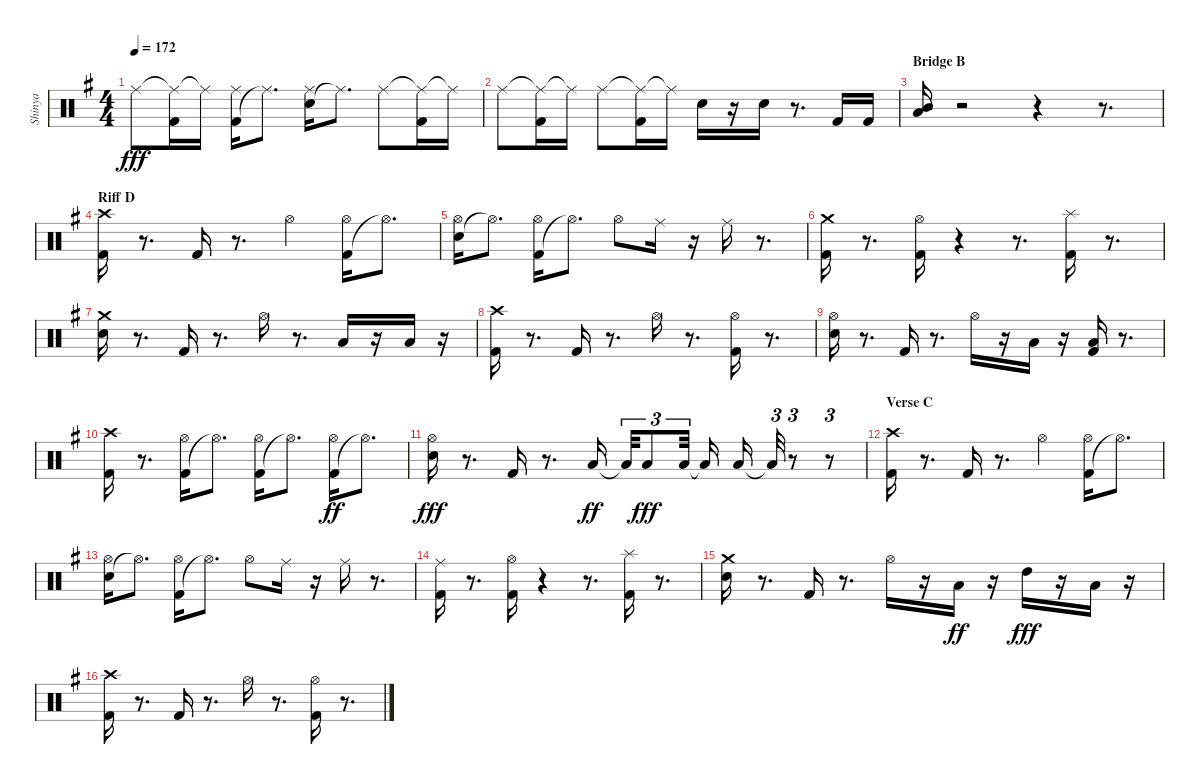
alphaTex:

\track ("Shinya" "Shinya") {instrument percussion}
\staff {score}
\articulation defaults
\ts (4 4)
\tempo 172
\clef neutral
\ks eminor "Ride (middle)".8{dy fff}
("Ride (middle)"{t} "Kick (hit) 2").16 "Ride (middle)"{t}.16 ("Kick (hit) 2" "Ride (middle)").16 "Ride (middle)"{t}.8{d} ("Snare (hit) 2" "Ride (middle)").16 "Ride (middle)"{t}.8{d} "Ride (middle)".8 ("Ride (middle)"{t} "Kick (hit) 2").16 "Ride (middle)"{t}.16 |
"Ride (middle)".8 ("Ride (middle)"{t} "Kick (hit) 2").16 "Ride (middle)"{t}.16 "Ride (middle)".8 ("Ride (middle)"{t} "Kick (hit) 2").16 "Ride (middle)"{t}.16 "Snare (hit) 2".16 r.16 "Snare (hit) 2".16 r.8{d} "Kick (hit) 2".16 "Kick (hit) 2".16 |
\section ("" "Bridge B")
("Low Tom (hit)" "Mid Tom (hit)").16 r.2 r.4 r.8{d} |
\section ("" "Riff D")
("Kick (hit) 2" "Crash high (hit)").16 r.8{d} "Kick (hit) 2".16 r.8{d} "Hi-Hat (open)".4 ("Kick (hit) 2" "Hi-Hat (open)").16 "Hi-Hat (open)"{t}.8{d} |
("Snare (hit) 2" "Hi-Hat (open)").16 "Hi-Hat (open)"{t}.8{d} ("Kick (hit) 2" "Hi-Hat (open)").16 "Hi-Hat (open)"{t}.8{d} "Hi-Hat (open)".8 "Ride (middle)".16 r.16 "Ride (middle)".16 r.8{d} |
("Kick (hit) 2" "Crash medium (hit)").16 r.8{d} ("Kick (hit) 2" "Hi-Hat (open)").16 r.4 r.8{d} ("Kick (hit) 2" "Splash (hit)").16 r.8{d} |
("Snare (hit) 2" "Crash medium (hit)").16 r.8{d} "Kick (hit) 2".16 r.8{d} "Hi-Hat (open)".16 r.8{d} "Low Tom (hit)".16 r.16 "Low Tom (hit)".16 r.16 |
("Kick (hit) 2" "Crash high (hit)").16 r.8{d} "Kick (hit) 2".16 r.8{d} "Hi-Hat (open)".16 r.8{d} ("Kick (hit) 2" "Hi-Hat (open)").16 r.8{d} |
("Snare (hit) 2" "Hi-Hat (open)").16 r.8{d} "Kick (hit) 2".16 r.8{d} "Hi-Hat (open)".16 r.16 "Low Tom (hit)".16 r.16 ("Kick (hit) 2" "Low Tom (hit)").16 r.8{d} |
("Kick (hit) 2" "Crash high (hit)").16 r.8{d} ("Kick (hit) 2" "Hi-Hat (open)").16 "Hi-Hat (open)"{t}.8{d} ("Kick (hit) 2" "Hi-Hat (open)").16 "Hi-Hat (open)"{t}.8{d} ("Kick (hit) 2" "Hi-Hat (open)").16{dy ff} "Hi-Hat (open)"{t}.8{d} |
("Snare (hit) 2" "Hi-Hat (open)").16{dy fff} r.8{d} "Kick (hit) 2".16 r.8{d} "Low Tom (hit)".16{dy ff} "Low Tom (hit)"{t}.32{tu (3 2)} "Low Tom (hit)".8{tu (3 2) dy fff} "Low Tom (hit)".32{tu (3 2)} "Low Tom (hit)"{t}.16 "Low Tom (hit)".16 "Low Tom (hit)"{t}.32{tu (3 2)} r.8{tu (3 2)} r.8{tu (3 2)} |
\section ("" "Verse C")
("Kick (hit) 2" "Crash high (hit)").16 r.8{d} "Kick (hit) 2".16 r.8{d} "Hi-Hat (open)".4 ("Kick (hit) 2" "Hi-Hat (open)").16 "Hi-Hat (open)"{t}.8{d} |
("Snare (hit) 2" "Hi-Hat (open)").16 "Hi-Hat (open)"{t}.8{d} ("Kick (hit) 2" "Hi-Hat (open)").16 "Hi-Hat (open)"{t}.8{d} "Hi-Hat (open)".8 "Ride (middle)".16 r.16 "Ride (middle)".16 r.8{d} |
("Kick (hit) 2" "Ride (middle)").16 r.8{d} ("Kick (hit) 2" "Hi-Hat (open)").16 r.4 r.8{d} ("Kick (hit) 2" "Splash (hit)").16 r.8{d} |
("Snare (hit) 2" "Crash medium (hit)").16 r.8{d} "Kick (hit) 2".16 r.8{d} "Hi-Hat (open)".16 r.16 "Low Tom (hit)".16{dy ff} r.16 "High Tom (hit)".16{dy fff} r.16 "Low Tom (hit)".16 r.16 |
("Kick (hit) 2" "Crash high (hit)").16 r.8{d} "Kick (hit) 2".16 r.8{d} "Hi-Hat (open)".16 r.8{d} ("Kick (hit) 2" "Hi-Hat (open)").16 r.8{d}
